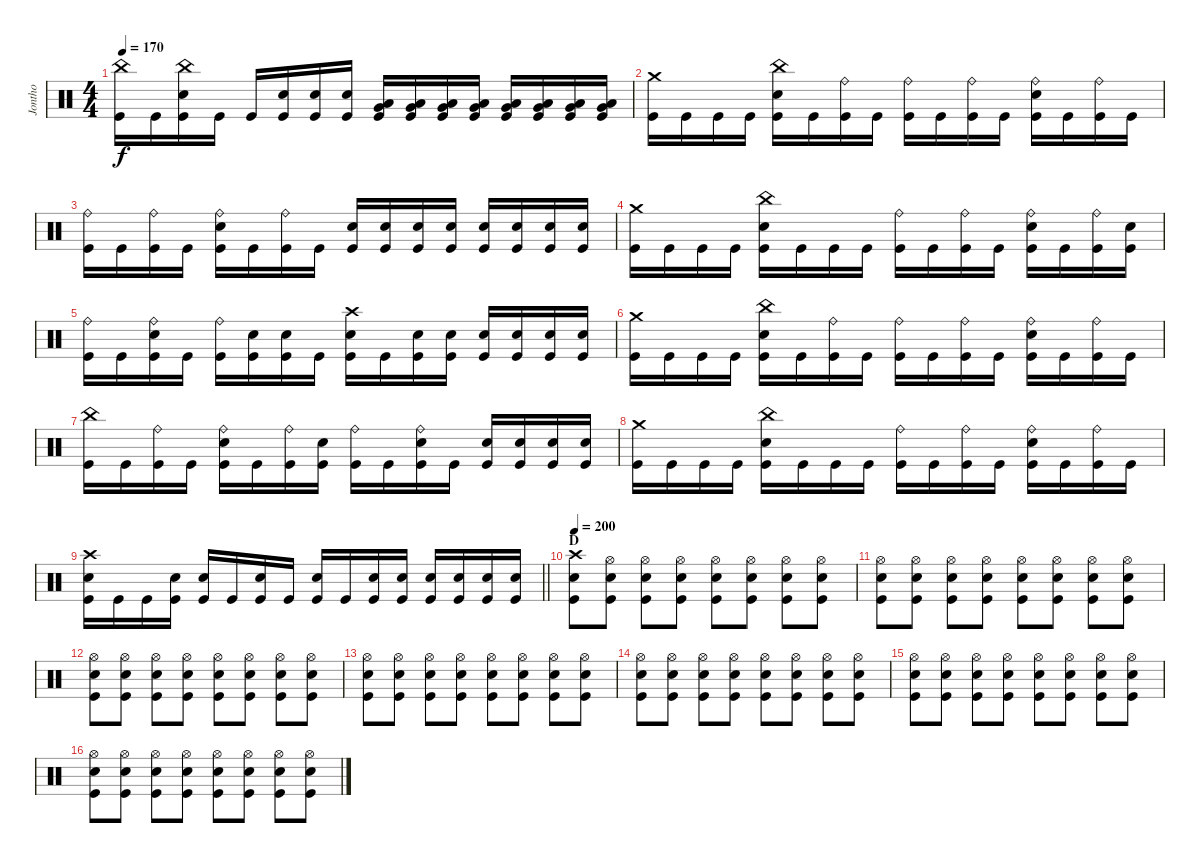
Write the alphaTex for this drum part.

\track ("Jontho" "Jontho") {instrument percussion}
\staff {score}
\articulation defaults
\ts (4 4)
\tempo 170
\clef neutral
\ks c
("China (hit)" "Kick (hit)").16{dy f} "Kick (hit)".16 ("China (hit)" "Snare (hit) 2" "Kick (hit)").16 "Kick (hit)".16 "Kick (hit)".16 ("Snare (hit) 2" "Kick (hit)").16 ("Snare (hit) 2" "Kick (hit)").16 ("Snare (hit) 2" "Kick (hit)").16 ("Low Tom (hit)" "Very Low Tom (hit)" "Kick (hit)").16 ("Low Tom (hit)" "Very Low Tom (hit)" "Kick (hit)").16 ("Low Tom (hit)" "Very Low Tom (hit)" "Kick (hit)").16 ("Low Tom (hit)" "Very Low Tom (hit)" "Kick (hit)").16 ("Very Low Tom (hit)" "Low Floor Tom (hit)" "Kick (hit)").16 ("Very Low Tom (hit)" "Low Floor Tom (hit)" "Kick (hit)").16 ("Very Low Tom (hit)" "Low Floor Tom (hit)" "Kick (hit)").16 ("Very Low Tom (hit)" "Low Floor Tom (hit)" "Kick (hit)").16 |
("Crash medium (hit)" "Kick (hit)").16 "Kick (hit)".16 "Kick (hit)".16 "Kick (hit)".16 ("China (hit)" "Snare (hit) 2" "Kick (hit)").16 "Kick (hit)".16 ("Ride (bell)" "Kick (hit)").16 "Kick (hit)".16 ("Ride (bell)" "Kick (hit)").16 "Kick (hit)".16 ("Ride (bell)" "Kick (hit)").16 "Kick (hit)".16 ("Ride (bell)" "Snare (hit) 2" "Kick (hit)").16 "Kick (hit)".16 ("Ride (bell)" "Kick (hit)").16 "Kick (hit)".16 |
("Ride (bell)" "Kick (hit)").16 "Kick (hit)".16 ("Ride (bell)" "Kick (hit)").16 "Kick (hit)".16 ("Ride (bell)" "Snare (hit) 2" "Kick (hit)").16 "Kick (hit)".16 ("Ride (bell)" "Kick (hit)").16 "Kick (hit)".16 ("Snare (hit) 2" "Kick (hit)").16 ("Snare (hit) 2" "Kick (hit)").16 ("Snare (hit) 2" "Kick (hit)").16 ("Snare (hit) 2" "Kick (hit)").16 ("Snare (hit) 2" "Kick (hit)").16 ("Snare (hit) 2" "Kick (hit)").16 ("Snare (hit) 2" "Kick (hit)").16 ("Snare (hit) 2" "Kick (hit)").16 |
("Crash medium (hit)" "Kick (hit)").16 "Kick (hit)".16 "Kick (hit)".16 "Kick (hit)".16 ("China (hit)" "Snare (hit) 2" "Kick (hit)").16 "Kick (hit)".16 "Kick (hit)".16 "Kick (hit)".16 ("Ride (bell)" "Kick (hit)").16 "Kick (hit)".16 ("Ride (bell)" "Kick (hit)").16 "Kick (hit)".16 ("Ride (bell)" "Snare (hit) 2" "Kick (hit)").16 "Kick (hit)".16 ("Ride (bell)" "Kick (hit)").16 ("Snare (hit) 2" "Kick (hit)").16 |
("Ride (bell)" "Kick (hit)").16 "Kick (hit)".16 ("Ride (bell)" "Snare (hit) 2" "Kick (hit)").16 "Kick (hit)".16 ("Ride (bell)" "Kick (hit)").16 ("Snare (hit) 2" "Kick (hit)").16 ("Snare (hit) 2" "Kick (hit)").16 "Kick (hit)".16 ("Crash high (hit)" "Snare (hit) 2" "Kick (hit)").16 "Kick (hit)".16 ("Snare (hit) 2" "Kick (hit)").16 ("Snare (hit) 2" "Kick (hit)").16 ("Snare (hit) 2" "Kick (hit)").16 ("Snare (hit) 2" "Kick (hit)").16 ("Snare (hit) 2" "Kick (hit)").16 ("Snare (hit) 2" "Kick (hit)").16 |
("Crash medium (hit)" "Kick (hit)").16 "Kick (hit)".16 "Kick (hit)".16 "Kick (hit)".16 ("China (hit)" "Snare (hit) 2" "Kick (hit)").16 "Kick (hit)".16 ("Ride (bell)" "Kick (hit)").16 "Kick (hit)".16 ("Ride (bell)" "Kick (hit)").16 "Kick (hit)".16 ("Ride (bell)" "Kick (hit)").16 "Kick (hit)".16 ("Ride (bell)" "Snare (hit) 2" "Kick (hit)").16 "Kick (hit)".16 ("Ride (bell)" "Kick (hit)").16 "Kick (hit)".16 |
("China (hit)" "Kick (hit)").16 "Kick (hit)".16 ("Ride (bell)" "Kick (hit)").16 "Kick (hit)".16 ("Ride (bell)" "Snare (hit) 2" "Kick (hit)").16 "Kick (hit)".16 ("Ride (bell)" "Kick (hit)").16 ("Snare (hit) 2" "Kick (hit)").16 ("Ride (bell)" "Kick (hit)").16 "Kick (hit)".16 ("Ride (bell)" "Snare (hit) 2" "Kick (hit)").16 "Kick (hit)".16 ("Snare (hit) 2" "Kick (hit)").16 ("Snare (hit) 2" "Kick (hit)").16 ("Snare (hit) 2" "Kick (hit)").16 ("Snare (hit) 2" "Kick (hit)").16 |
("Crash medium (hit)" "Kick (hit)").16 "Kick (hit)".16 "Kick (hit)".16 "Kick (hit)".16 ("China (hit)" "Snare (hit) 2" "Kick (hit)").16 "Kick (hit)".16 "Kick (hit)".16 "Kick (hit)".16 ("Ride (bell)" "Kick (hit)").16 "Kick (hit)".16 ("Ride (bell)" "Kick (hit)").16 "Kick (hit)".16 ("Ride (bell)" "Snare (hit) 2" "Kick (hit)").16 "Kick (hit)".16 ("Ride (bell)" "Kick (hit)").16 "Kick (hit)".16 |
\barLineRight lightlight
("Crash high (hit)" "Snare (hit) 2" "Kick (hit)").16 "Kick (hit)".16 "Kick (hit)".16 ("Snare (hit) 2" "Kick (hit)").16 ("Snare (hit) 2" "Kick (hit)").16 "Kick (hit)".16 ("Snare (hit) 2" "Kick (hit)").16 "Kick (hit)".16 ("Snare (hit) 2" "Kick (hit)").16 "Kick (hit)".16 ("Snare (hit) 2" "Kick (hit)").16 ("Snare (hit) 2" "Kick (hit)").16 ("Snare (hit) 2" "Kick (hit)").16 ("Snare (hit) 2" "Kick (hit)").16 ("Snare (hit) 2" "Kick (hit)").16 ("Snare (hit) 2" "Kick (hit)").16 |
\section ("" "D")
\tempo 200
("Crash high (hit)" "Snare (hit) 2" "Kick (hit)").8 ("Hi-Hat (open)" "Snare (hit) 2" "Kick (hit)").8 ("Hi-Hat (open)" "Snare (hit) 2" "Kick (hit)").8 ("Hi-Hat (open)" "Snare (hit) 2" "Kick (hit)").8 ("Hi-Hat (open)" "Snare (hit) 2" "Kick (hit)").8 ("Hi-Hat (open)" "Snare (hit) 2" "Kick (hit)").8 ("Hi-Hat (open)" "Snare (hit) 2" "Kick (hit)").8 ("Hi-Hat (open)" "Snare (hit) 2" "Kick (hit)").8 |
("Hi-Hat (open)" "Snare (hit) 2" "Kick (hit)").8 ("Hi-Hat (open)" "Snare (hit) 2" "Kick (hit)").8 ("Hi-Hat (open)" "Snare (hit) 2" "Kick (hit)").8 ("Hi-Hat (open)" "Snare (hit) 2" "Kick (hit)").8 ("Hi-Hat (open)" "Snare (hit) 2" "Kick (hit)").8 ("Hi-Hat (open)" "Snare (hit) 2" "Kick (hit)").8 ("Hi-Hat (open)" "Snare (hit) 2" "Kick (hit)").8 ("Hi-Hat (open)" "Snare (hit) 2" "Kick (hit)").8 |
("Hi-Hat (open)" "Snare (hit) 2" "Kick (hit)").8 ("Hi-Hat (open)" "Snare (hit) 2" "Kick (hit)").8 ("Hi-Hat (open)" "Snare (hit) 2" "Kick (hit)").8 ("Hi-Hat (open)" "Snare (hit) 2" "Kick (hit)").8 ("Hi-Hat (open)" "Snare (hit) 2" "Kick (hit)").8 ("Hi-Hat (open)" "Snare (hit) 2" "Kick (hit)").8 ("Hi-Hat (open)" "Snare (hit) 2" "Kick (hit)").8 ("Hi-Hat (open)" "Snare (hit) 2" "Kick (hit)").8 |
("Hi-Hat (open)" "Snare (hit) 2" "Kick (hit)").8 ("Hi-Hat (open)" "Snare (hit) 2" "Kick (hit)").8 ("Hi-Hat (open)" "Snare (hit) 2" "Kick (hit)").8 ("Hi-Hat (open)" "Snare (hit) 2" "Kick (hit)").8 ("Hi-Hat (open)" "Snare (hit) 2" "Kick (hit)").8 ("Hi-Hat (open)" "Snare (hit) 2" "Kick (hit)").8 ("Hi-Hat (open)" "Snare (hit) 2" "Kick (hit)").8 ("Hi-Hat (open)" "Snare (hit) 2" "Kick (hit)").8 |
("Hi-Hat (open)" "Snare (hit) 2" "Kick (hit)").8 ("Hi-Hat (open)" "Snare (hit) 2" "Kick (hit)").8 ("Hi-Hat (open)" "Snare (hit) 2" "Kick (hit)").8 ("Hi-Hat (open)" "Snare (hit) 2" "Kick (hit)").8 ("Hi-Hat (open)" "Snare (hit) 2" "Kick (hit)").8 ("Hi-Hat (open)" "Snare (hit) 2" "Kick (hit)").8 ("Hi-Hat (open)" "Snare (hit) 2" "Kick (hit)").8 ("Hi-Hat (open)" "Snare (hit) 2" "Kick (hit)").8 |
("Hi-Hat (open)" "Snare (hit) 2" "Kick (hit)").8 ("Hi-Hat (open)" "Snare (hit) 2" "Kick (hit)").8 ("Hi-Hat (open)" "Snare (hit) 2" "Kick (hit)").8 ("Hi-Hat (open)" "Snare (hit) 2" "Kick (hit)").8 ("Hi-Hat (open)" "Snare (hit) 2" "Kick (hit)").8 ("Hi-Hat (open)" "Snare (hit) 2" "Kick (hit)").8 ("Hi-Hat (open)" "Snare (hit) 2" "Kick (hit)").8 ("Hi-Hat (open)" "Snare (hit) 2" "Kick (hit)").8 |
("Hi-Hat (open)" "Snare (hit) 2" "Kick (hit)").8 ("Hi-Hat (open)" "Snare (hit) 2" "Kick (hit)").8 ("Hi-Hat (open)" "Snare (hit) 2" "Kick (hit)").8 ("Hi-Hat (open)" "Snare (hit) 2" "Kick (hit)").8 ("Hi-Hat (open)" "Snare (hit) 2" "Kick (hit)").8 ("Hi-Hat (open)" "Snare (hit) 2" "Kick (hit)").8 ("Hi-Hat (open)" "Snare (hit) 2" "Kick (hit)").8 ("Hi-Hat (open)" "Snare (hit) 2" "Kick (hit)").8
